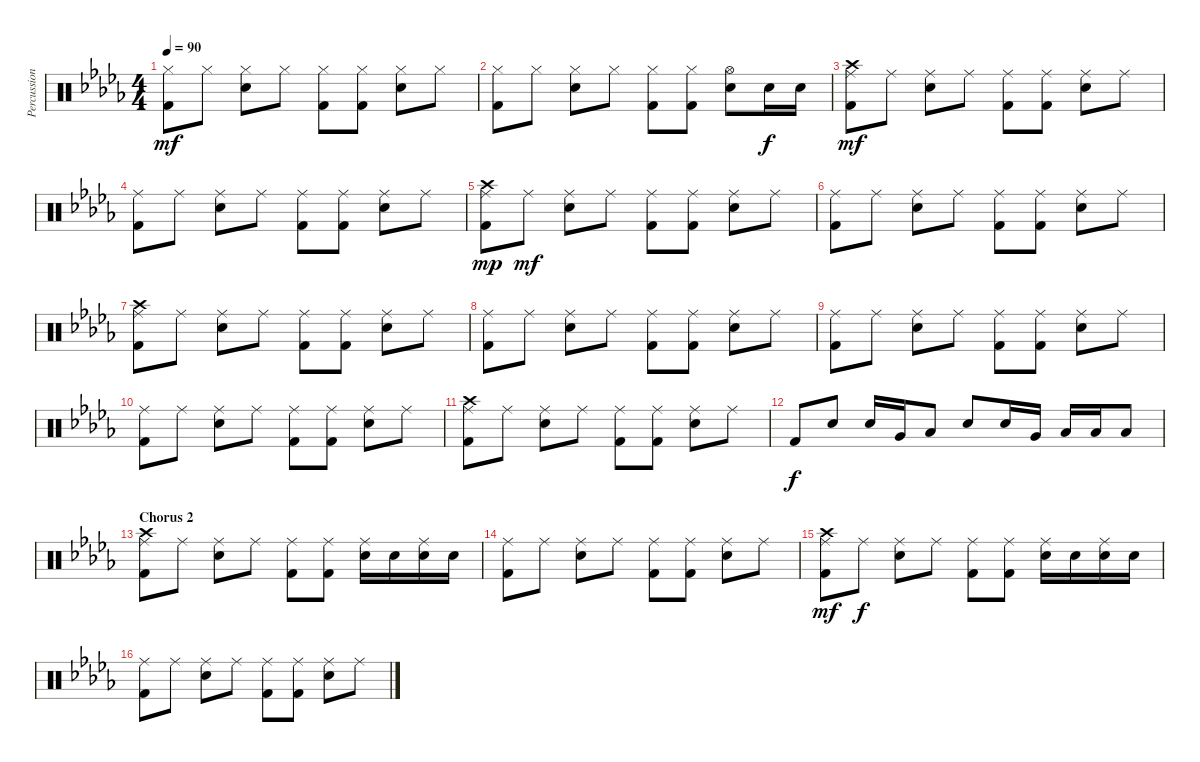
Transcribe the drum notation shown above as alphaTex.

\track ("Percussion" "Percussion") {instrument percussion}
\staff {score}
\articulation defaults
\ts (4 4)
\tempo 90
\clef neutral
\ks db
("Hi-Hat (closed)" "Kick (hit) 2").8{dy mf} "Hi-Hat (closed)".8 ("Hi-Hat (closed)" "Snare (hit) 2").8 "Hi-Hat (closed)".8 ("Hi-Hat (closed)" "Kick (hit) 2").8 ("Hi-Hat (closed)" "Kick (hit) 2").8 ("Hi-Hat (closed)" "Snare (hit) 2").8 "Hi-Hat (closed)".8 |
("Hi-Hat (closed)" "Kick (hit) 2").8 "Hi-Hat (closed)".8 ("Hi-Hat (closed)" "Snare (hit) 2").8 "Hi-Hat (closed)".8 ("Hi-Hat (closed)" "Kick (hit) 2").8 ("Hi-Hat (closed)" "Kick (hit) 2").8 ("Hi-Hat (open)" "Snare (hit) 2").8 "Snare (hit) 2".16{dy f} "Snare (hit) 2".16 |
("Ride (middle)" "Crash high (hit)" "Kick (hit) 2").8{dy mf} "Ride (middle)".8 ("Ride (middle)" "Snare (hit) 2").8 "Ride (middle)".8 ("Ride (middle)" "Kick (hit) 2").8 ("Ride (middle)" "Kick (hit) 2").8 ("Ride (middle)" "Snare (hit) 2").8 "Ride (middle)".8 |
("Ride (middle)" "Kick (hit) 2").8 "Ride (middle)".8 ("Ride (middle)" "Snare (hit) 2").8 "Ride (middle)".8 ("Ride (middle)" "Kick (hit) 2").8 ("Ride (middle)" "Kick (hit) 2").8 ("Ride (middle)" "Snare (hit) 2").8 "Ride (middle)".8 |
("Ride (middle)" "Crash high (hit)" "Kick (hit) 2").8{dy mp} "Ride (middle)".8{dy mf} ("Ride (middle)" "Snare (hit) 2").8 "Ride (middle)".8 ("Ride (middle)" "Kick (hit) 2").8 ("Ride (middle)" "Kick (hit) 2").8 ("Ride (middle)" "Snare (hit) 2").8 "Ride (middle)".8 |
("Ride (middle)" "Kick (hit) 2").8 "Ride (middle)".8 ("Ride (middle)" "Snare (hit) 2").8 "Ride (middle)".8 ("Ride (middle)" "Kick (hit) 2").8 ("Ride (middle)" "Kick (hit) 2").8 ("Ride (middle)" "Snare (hit) 2").8 "Ride (middle)".8 |
("Ride (middle)" "Crash high (hit)" "Kick (hit) 2").8 "Ride (middle)".8 ("Ride (middle)" "Snare (hit) 2").8 "Ride (middle)".8 ("Ride (middle)" "Kick (hit) 2").8 ("Ride (middle)" "Kick (hit) 2").8 ("Ride (middle)" "Snare (hit) 2").8 "Ride (middle)".8 |
("Ride (middle)" "Kick (hit) 2").8 "Ride (middle)".8 ("Ride (middle)" "Snare (hit) 2").8 "Ride (middle)".8 ("Ride (middle)" "Kick (hit) 2").8 ("Ride (middle)" "Kick (hit) 2").8 ("Ride (middle)" "Snare (hit) 2").8 "Ride (middle)".8 |
("Ride (middle)" "Kick (hit) 2").8 "Ride (middle)".8 ("Ride (middle)" "Snare (hit) 2").8 "Ride (middle)".8 ("Ride (middle)" "Kick (hit) 2").8 ("Ride (middle)" "Kick (hit) 2").8 ("Ride (middle)" "Snare (hit) 2").8 "Ride (middle)".8 |
("Ride (middle)" "Kick (hit) 2").8 "Ride (middle)".8 ("Ride (middle)" "Snare (hit) 2").8 "Ride (middle)".8 ("Ride (middle)" "Kick (hit) 2").8 ("Ride (middle)" "Kick (hit) 2").8 ("Ride (middle)" "Snare (hit) 2").8 "Ride (middle)".8 |
("Ride (middle)" "Crash high (hit)" "Kick (hit) 2").8 "Ride (middle)".8 ("Ride (middle)" "Snare (hit) 2").8 "Ride (middle)".8 ("Ride (middle)" "Kick (hit) 2").8 ("Ride (middle)" "Kick (hit) 2").8 ("Ride (middle)" "Snare (hit) 2").8 "Ride (middle)".8 |
"Kick (hit) 2".8{dy f} "Snare (hit) 2".8 "Snare (hit) 2".16 "Very Low Tom (hit)".16 "Low Floor Tom (hit)".8 "Snare (hit) 2".8 "Snare (hit) 2".16 "Very Low Tom (hit)".16 "Low Floor Tom (hit)".16 "Low Floor Tom (hit)".16 "Low Floor Tom (hit)".8 |
\section ("" "Chorus 2")
("Ride (middle)" "Crash high (hit)" "Kick (hit) 2").8 "Ride (middle)".8 ("Ride (middle)" "Snare (hit) 2").8 "Ride (middle)".8 ("Ride (middle)" "Kick (hit) 2").8 ("Ride (middle)" "Kick (hit) 2").8 ("Ride (middle)" "Snare (hit) 2").16 "Snare (hit) 2".16 ("Ride (middle)" "Snare (hit) 2").16 "Snare (hit) 2".16 |
("Ride (middle)" "Kick (hit) 2").8 "Ride (middle)".8 ("Ride (middle)" "Snare (hit) 2").8 "Ride (middle)".8 ("Ride (middle)" "Kick (hit) 2").8 ("Ride (middle)" "Kick (hit) 2").8 ("Ride (middle)" "Snare (hit) 2").8 "Ride (middle)".8 |
("Ride (middle)" "Crash high (hit)" "Kick (hit) 2").8{dy mf} "Ride (middle)".8{dy f} ("Ride (middle)" "Snare (hit) 2").8 "Ride (middle)".8 ("Ride (middle)" "Kick (hit) 2").8 ("Ride (middle)" "Kick (hit) 2").8 ("Ride (middle)" "Snare (hit) 2").16 "Snare (hit) 2".16 ("Ride (middle)" "Snare (hit) 2").16 "Snare (hit) 2".16 |
("Ride (middle)" "Kick (hit) 2").8 "Ride (middle)".8 ("Ride (middle)" "Snare (hit) 2").8 "Ride (middle)".8 ("Ride (middle)" "Kick (hit) 2").8 ("Ride (middle)" "Kick (hit) 2").8 ("Ride (middle)" "Snare (hit) 2").8 "Ride (middle)".8
